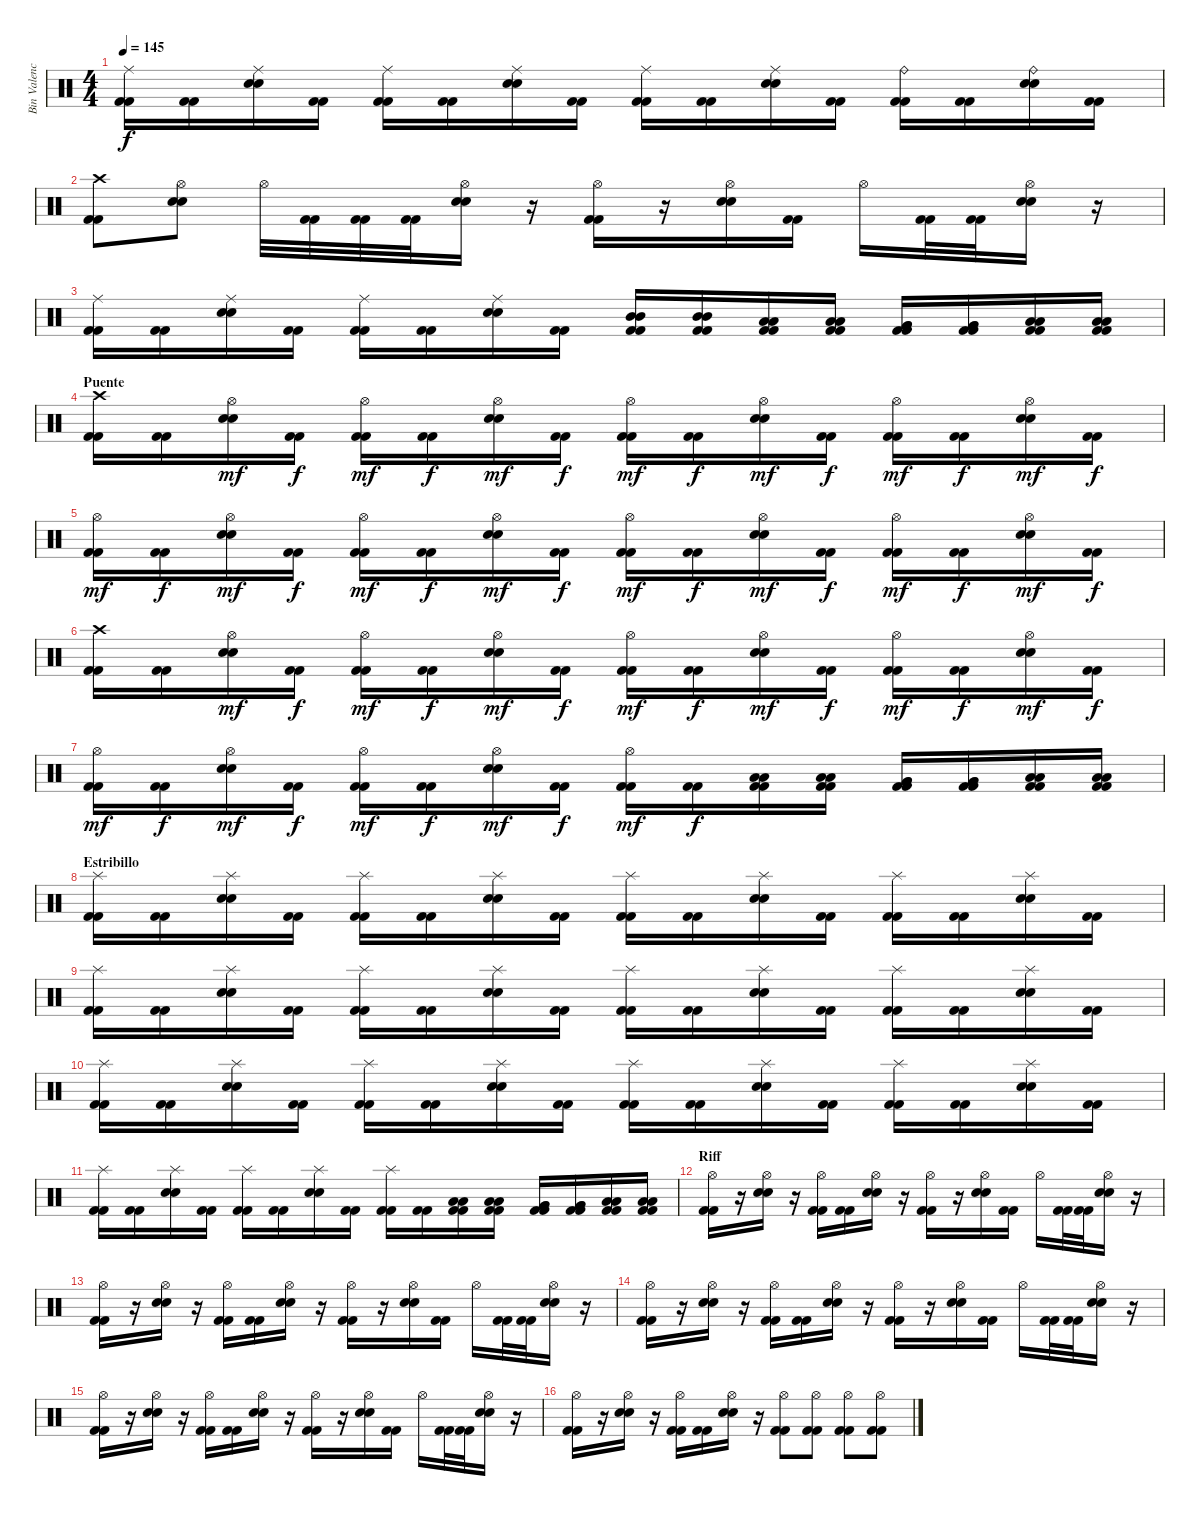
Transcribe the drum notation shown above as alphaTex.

\track ("Bin Valencia (Bateria)" "Bin Valenc") {instrument percussion}
\staff {score}
\articulation defaults
\ts (4 4)
\tempo 145
\clef neutral
\ks c
("Ride (middle)" "Kick (hit) 2" "Kick (hit) 2").16{dy f} ("Kick (hit) 2" "Kick (hit) 2").16 ("Ride (middle)" "Snare (hit) 2" "Snare (hit) 2").16 ("Kick (hit) 2" "Kick (hit) 2").16 ("Ride (middle)" "Kick (hit) 2" "Kick (hit) 2").16 ("Kick (hit) 2" "Kick (hit) 2").16 ("Ride (middle)" "Snare (hit) 2" "Snare (hit) 2").16 ("Kick (hit) 2" "Kick (hit) 2").16 ("Ride (middle)" "Kick (hit) 2" "Kick (hit) 2").16 ("Kick (hit) 2" "Kick (hit) 2").16 ("Ride (middle)" "Snare (hit) 2" "Snare (hit) 2").16 ("Kick (hit) 2" "Kick (hit) 2").16 ("Ride (bell)" "Kick (hit) 2" "Kick (hit) 2").16 ("Kick (hit) 2" "Kick (hit) 2").16 ("Ride (bell)" "Snare (hit) 2" "Snare (hit) 2").16 ("Kick (hit) 2" "Kick (hit) 2").16 |
("Crash high (hit)" "Kick (hit) 2" "Kick (hit) 2").8 ("Hi-Hat (open)" "Snare (hit) 2" "Snare (hit) 2").8 "Hi-Hat (open)".32 ("Kick (hit) 2" "Kick (hit) 2").32 ("Kick (hit) 2" "Kick (hit) 2").32 ("Kick (hit) 2" "Kick (hit) 2").32 ("Hi-Hat (open)" "Snare (hit) 2" "Snare (hit) 2").16 r.16 ("Hi-Hat (open)" "Kick (hit) 2" "Kick (hit) 2").16 r.16 ("Hi-Hat (open)" "Snare (hit) 2" "Snare (hit) 2").16 ("Kick (hit) 2" "Kick (hit) 2").16 "Hi-Hat (open)".16 ("Kick (hit) 2" "Kick (hit) 2").32 ("Kick (hit) 2" "Kick (hit) 2").32 ("Hi-Hat (open)" "Snare (hit) 2" "Snare (hit) 2").16 r.16 |
("Ride (middle)" "Kick (hit) 2" "Kick (hit) 2").16 ("Kick (hit) 2" "Kick (hit) 2").16 ("Ride (middle)" "Snare (hit) 2" "Snare (hit) 2").16 ("Kick (hit) 2" "Kick (hit) 2").16 ("Ride (middle)" "Kick (hit) 2" "Kick (hit) 2").16 ("Kick (hit) 2" "Kick (hit) 2").16 ("Ride (middle)" "Snare (hit) 2" "Snare (hit) 2").16 ("Kick (hit) 2" "Kick (hit) 2").16 ("Kick (hit) 2" "Kick (hit) 2" "Mid Tom (hit)" "Mid Tom (hit)").16 ("Kick (hit) 2" "Kick (hit) 2" "Mid Tom (hit)" "Mid Tom (hit)").16 ("Kick (hit) 2" "Kick (hit) 2" "Low Tom (hit)" "Low Tom (hit)").16 ("Kick (hit) 2" "Kick (hit) 2" "Low Tom (hit)" "Low Tom (hit)").16 ("Kick (hit) 2" "Kick (hit) 2" "Very Low Tom (hit)" "Very Low Tom (hit)").16 ("Kick (hit) 2" "Kick (hit) 2" "Very Low Tom (hit)" "Very Low Tom (hit)").16 ("Kick (hit) 2" "Kick (hit) 2" "Low Floor Tom (hit)" "Low Floor Tom (hit)").16 ("Kick (hit) 2" "Kick (hit) 2" "Low Floor Tom (hit)" "Low Floor Tom (hit)").16 |
\section ("" "Puente")
("Crash high (hit)" "Kick (hit) 2" "Kick (hit) 2").16 ("Kick (hit) 2" "Kick (hit) 2").16 ("Hi-Hat (open)" "Snare (hit) 2" "Snare (hit) 2").16{dy mf} ("Kick (hit) 2" "Kick (hit) 2").16{dy f} ("Hi-Hat (open)" "Kick (hit) 2" "Kick (hit) 2").16{dy mf} ("Kick (hit) 2" "Kick (hit) 2").16{dy f} ("Hi-Hat (open)" "Snare (hit) 2" "Snare (hit) 2").16{dy mf} ("Kick (hit) 2" "Kick (hit) 2").16{dy f} ("Hi-Hat (open)" "Kick (hit) 2" "Kick (hit) 2").16{dy mf} ("Kick (hit) 2" "Kick (hit) 2").16{dy f} ("Hi-Hat (open)" "Snare (hit) 2" "Snare (hit) 2").16{dy mf} ("Kick (hit) 2" "Kick (hit) 2").16{dy f} ("Hi-Hat (open)" "Kick (hit) 2" "Kick (hit) 2").16{dy mf} ("Kick (hit) 2" "Kick (hit) 2").16{dy f} ("Hi-Hat (open)" "Snare (hit) 2" "Snare (hit) 2").16{dy mf} ("Kick (hit) 2" "Kick (hit) 2").16{dy f} |
("Hi-Hat (open)" "Kick (hit) 2" "Kick (hit) 2").16{dy mf} ("Kick (hit) 2" "Kick (hit) 2").16{dy f} ("Hi-Hat (open)" "Snare (hit) 2" "Snare (hit) 2").16{dy mf} ("Kick (hit) 2" "Kick (hit) 2").16{dy f} ("Hi-Hat (open)" "Kick (hit) 2" "Kick (hit) 2").16{dy mf} ("Kick (hit) 2" "Kick (hit) 2").16{dy f} ("Hi-Hat (open)" "Snare (hit) 2" "Snare (hit) 2").16{dy mf} ("Kick (hit) 2" "Kick (hit) 2").16{dy f} ("Hi-Hat (open)" "Kick (hit) 2" "Kick (hit) 2").16{dy mf} ("Kick (hit) 2" "Kick (hit) 2").16{dy f} ("Hi-Hat (open)" "Snare (hit) 2" "Snare (hit) 2").16{dy mf} ("Kick (hit) 2" "Kick (hit) 2").16{dy f} ("Hi-Hat (open)" "Kick (hit) 2" "Kick (hit) 2").16{dy mf} ("Kick (hit) 2" "Kick (hit) 2").16{dy f} ("Hi-Hat (open)" "Snare (hit) 2" "Snare (hit) 2").16{dy mf} ("Kick (hit) 2" "Kick (hit) 2").16{dy f} |
("Crash high (hit)" "Kick (hit) 2" "Kick (hit) 2").16 ("Kick (hit) 2" "Kick (hit) 2").16 ("Hi-Hat (open)" "Snare (hit) 2" "Snare (hit) 2").16{dy mf} ("Kick (hit) 2" "Kick (hit) 2").16{dy f} ("Hi-Hat (open)" "Kick (hit) 2" "Kick (hit) 2").16{dy mf} ("Kick (hit) 2" "Kick (hit) 2").16{dy f} ("Hi-Hat (open)" "Snare (hit) 2" "Snare (hit) 2").16{dy mf} ("Kick (hit) 2" "Kick (hit) 2").16{dy f} ("Hi-Hat (open)" "Kick (hit) 2" "Kick (hit) 2").16{dy mf} ("Kick (hit) 2" "Kick (hit) 2").16{dy f} ("Hi-Hat (open)" "Snare (hit) 2" "Snare (hit) 2").16{dy mf} ("Kick (hit) 2" "Kick (hit) 2").16{dy f} ("Hi-Hat (open)" "Kick (hit) 2" "Kick (hit) 2").16{dy mf} ("Kick (hit) 2" "Kick (hit) 2").16{dy f} ("Hi-Hat (open)" "Snare (hit) 2" "Snare (hit) 2").16{dy mf} ("Kick (hit) 2" "Kick (hit) 2").16{dy f} |
("Hi-Hat (open)" "Kick (hit) 2" "Kick (hit) 2").16{dy mf} ("Kick (hit) 2" "Kick (hit) 2").16{dy f} ("Hi-Hat (open)" "Snare (hit) 2" "Snare (hit) 2").16{dy mf} ("Kick (hit) 2" "Kick (hit) 2").16{dy f} ("Hi-Hat (open)" "Kick (hit) 2" "Kick (hit) 2").16{dy mf} ("Kick (hit) 2" "Kick (hit) 2").16{dy f} ("Hi-Hat (open)" "Snare (hit) 2" "Snare (hit) 2").16{dy mf} ("Kick (hit) 2" "Kick (hit) 2").16{dy f} ("Hi-Hat (open)" "Kick (hit) 2" "Kick (hit) 2").16{dy mf} ("Kick (hit) 2" "Kick (hit) 2").16{dy f} ("Kick (hit) 2" "Kick (hit) 2" "Low Tom (hit)" "Low Tom (hit)").16 ("Kick (hit) 2" "Kick (hit) 2" "Low Tom (hit)" "Low Tom (hit)").16 ("Kick (hit) 2" "Kick (hit) 2" "Very Low Tom (hit)" "Very Low Tom (hit)").16 ("Kick (hit) 2" "Kick (hit) 2" "Very Low Tom (hit)" "Very Low Tom (hit)").16 ("Kick (hit) 2" "Kick (hit) 2" "Low Floor Tom (hit)" "Low Floor Tom (hit)").16 ("Kick (hit) 2" "Kick (hit) 2" "Low Floor Tom (hit)" "Low Floor Tom (hit)").16 |
\section ("" "Estribillo")
("Splash (hit)" "Kick (hit) 2" "Kick (hit) 2").16 ("Kick (hit) 2" "Kick (hit) 2").16 ("Splash (hit)" "Snare (hit) 2" "Snare (hit) 2").16 ("Kick (hit) 2" "Kick (hit) 2").16 ("Splash (hit)" "Kick (hit) 2" "Kick (hit) 2").16 ("Kick (hit) 2" "Kick (hit) 2").16 ("Splash (hit)" "Snare (hit) 2" "Snare (hit) 2").16 ("Kick (hit) 2" "Kick (hit) 2").16 ("Splash (hit)" "Kick (hit) 2" "Kick (hit) 2").16 ("Kick (hit) 2" "Kick (hit) 2").16 ("Splash (hit)" "Snare (hit) 2" "Snare (hit) 2").16 ("Kick (hit) 2" "Kick (hit) 2").16 ("Splash (hit)" "Kick (hit) 2" "Kick (hit) 2").16 ("Kick (hit) 2" "Kick (hit) 2").16 ("Splash (hit)" "Snare (hit) 2" "Snare (hit) 2").16 ("Kick (hit) 2" "Kick (hit) 2").16 |
("Splash (hit)" "Kick (hit) 2" "Kick (hit) 2").16 ("Kick (hit) 2" "Kick (hit) 2").16 ("Splash (hit)" "Snare (hit) 2" "Snare (hit) 2").16 ("Kick (hit) 2" "Kick (hit) 2").16 ("Splash (hit)" "Kick (hit) 2" "Kick (hit) 2").16 ("Kick (hit) 2" "Kick (hit) 2").16 ("Splash (hit)" "Snare (hit) 2" "Snare (hit) 2").16 ("Kick (hit) 2" "Kick (hit) 2").16 ("Splash (hit)" "Kick (hit) 2" "Kick (hit) 2").16 ("Kick (hit) 2" "Kick (hit) 2").16 ("Splash (hit)" "Snare (hit) 2" "Snare (hit) 2").16 ("Kick (hit) 2" "Kick (hit) 2").16 ("Splash (hit)" "Kick (hit) 2" "Kick (hit) 2").16 ("Kick (hit) 2" "Kick (hit) 2").16 ("Splash (hit)" "Snare (hit) 2" "Snare (hit) 2").16 ("Kick (hit) 2" "Kick (hit) 2").16 |
("Splash (hit)" "Kick (hit) 2" "Kick (hit) 2").16 ("Kick (hit) 2" "Kick (hit) 2").16 ("Splash (hit)" "Snare (hit) 2" "Snare (hit) 2").16 ("Kick (hit) 2" "Kick (hit) 2").16 ("Splash (hit)" "Kick (hit) 2" "Kick (hit) 2").16 ("Kick (hit) 2" "Kick (hit) 2").16 ("Splash (hit)" "Snare (hit) 2" "Snare (hit) 2").16 ("Kick (hit) 2" "Kick (hit) 2").16 ("Splash (hit)" "Kick (hit) 2" "Kick (hit) 2").16 ("Kick (hit) 2" "Kick (hit) 2").16 ("Splash (hit)" "Snare (hit) 2" "Snare (hit) 2").16 ("Kick (hit) 2" "Kick (hit) 2").16 ("Splash (hit)" "Kick (hit) 2" "Kick (hit) 2").16 ("Kick (hit) 2" "Kick (hit) 2").16 ("Splash (hit)" "Snare (hit) 2" "Snare (hit) 2").16 ("Kick (hit) 2" "Kick (hit) 2").16 |
("Splash (hit)" "Kick (hit) 2" "Kick (hit) 2").16 ("Kick (hit) 2" "Kick (hit) 2").16 ("Splash (hit)" "Snare (hit) 2" "Snare (hit) 2").16 ("Kick (hit) 2" "Kick (hit) 2").16 ("Splash (hit)" "Kick (hit) 2" "Kick (hit) 2").16 ("Kick (hit) 2" "Kick (hit) 2").16 ("Splash (hit)" "Snare (hit) 2" "Snare (hit) 2").16 ("Kick (hit) 2" "Kick (hit) 2").16 ("Splash (hit)" "Kick (hit) 2" "Kick (hit) 2").16 ("Kick (hit) 2" "Kick (hit) 2").16 ("Kick (hit) 2" "Kick (hit) 2" "Low Tom (hit)" "Low Tom (hit)").16 ("Kick (hit) 2" "Kick (hit) 2" "Low Tom (hit)" "Low Tom (hit)").16 ("Kick (hit) 2" "Kick (hit) 2" "Very Low Tom (hit)" "Very Low Tom (hit)").16 ("Kick (hit) 2" "Kick (hit) 2" "Very Low Tom (hit)" "Very Low Tom (hit)").16 ("Kick (hit) 2" "Kick (hit) 2" "Low Floor Tom (hit)" "Low Floor Tom (hit)").16 ("Kick (hit) 2" "Kick (hit) 2" "Low Floor Tom (hit)" "Low Floor Tom (hit)").16 |
\section ("" "Riff")
("Hi-Hat (open)" "Kick (hit) 2" "Kick (hit) 2").16 r.16 ("Hi-Hat (open)" "Snare (hit) 2" "Snare (hit) 2").16 r.16 ("Hi-Hat (open)" "Kick (hit) 2" "Kick (hit) 2").16 ("Kick (hit) 2" "Kick (hit) 2").16 ("Hi-Hat (open)" "Snare (hit) 2" "Snare (hit) 2").16 r.16 ("Hi-Hat (open)" "Kick (hit) 2" "Kick (hit) 2").16 r.16 ("Hi-Hat (open)" "Snare (hit) 2" "Snare (hit) 2").16 ("Kick (hit) 2" "Kick (hit) 2").16 "Hi-Hat (open)".16 ("Kick (hit) 2" "Kick (hit) 2").32 ("Kick (hit) 2" "Kick (hit) 2").32 ("Hi-Hat (open)" "Snare (hit) 2" "Snare (hit) 2").16 r.16 |
("Hi-Hat (open)" "Kick (hit) 2" "Kick (hit) 2").16 r.16 ("Hi-Hat (open)" "Snare (hit) 2" "Snare (hit) 2").16 r.16 ("Hi-Hat (open)" "Kick (hit) 2" "Kick (hit) 2").16 ("Kick (hit) 2" "Kick (hit) 2").16 ("Hi-Hat (open)" "Snare (hit) 2" "Snare (hit) 2").16 r.16 ("Hi-Hat (open)" "Kick (hit) 2" "Kick (hit) 2").16 r.16 ("Hi-Hat (open)" "Snare (hit) 2" "Snare (hit) 2").16 ("Kick (hit) 2" "Kick (hit) 2").16 "Hi-Hat (open)".16 ("Kick (hit) 2" "Kick (hit) 2").32 ("Kick (hit) 2" "Kick (hit) 2").32 ("Hi-Hat (open)" "Snare (hit) 2" "Snare (hit) 2").16 r.16 |
("Hi-Hat (open)" "Kick (hit) 2" "Kick (hit) 2").16 r.16 ("Hi-Hat (open)" "Snare (hit) 2" "Snare (hit) 2").16 r.16 ("Hi-Hat (open)" "Kick (hit) 2" "Kick (hit) 2").16 ("Kick (hit) 2" "Kick (hit) 2").16 ("Hi-Hat (open)" "Snare (hit) 2" "Snare (hit) 2").16 r.16 ("Hi-Hat (open)" "Kick (hit) 2" "Kick (hit) 2").16 r.16 ("Hi-Hat (open)" "Snare (hit) 2" "Snare (hit) 2").16 ("Kick (hit) 2" "Kick (hit) 2").16 "Hi-Hat (open)".16 ("Kick (hit) 2" "Kick (hit) 2").32 ("Kick (hit) 2" "Kick (hit) 2").32 ("Hi-Hat (open)" "Snare (hit) 2" "Snare (hit) 2").16 r.16 |
("Hi-Hat (open)" "Kick (hit) 2" "Kick (hit) 2").16 r.16 ("Hi-Hat (open)" "Snare (hit) 2" "Snare (hit) 2").16 r.16 ("Hi-Hat (open)" "Kick (hit) 2" "Kick (hit) 2").16 ("Kick (hit) 2" "Kick (hit) 2").16 ("Hi-Hat (open)" "Snare (hit) 2" "Snare (hit) 2").16 r.16 ("Hi-Hat (open)" "Kick (hit) 2" "Kick (hit) 2").16 r.16 ("Hi-Hat (open)" "Snare (hit) 2" "Snare (hit) 2").16 ("Kick (hit) 2" "Kick (hit) 2").16 "Hi-Hat (open)".16 ("Kick (hit) 2" "Kick (hit) 2").32 ("Kick (hit) 2" "Kick (hit) 2").32 ("Hi-Hat (open)" "Snare (hit) 2" "Snare (hit) 2").16 r.16 |
("Hi-Hat (open)" "Kick (hit) 2" "Kick (hit) 2").16 r.16 ("Hi-Hat (open)" "Snare (hit) 2" "Snare (hit) 2").16 r.16 ("Hi-Hat (open)" "Kick (hit) 2" "Kick (hit) 2").16 ("Kick (hit) 2" "Kick (hit) 2").16 ("Hi-Hat (open)" "Snare (hit) 2" "Snare (hit) 2").16 r.16 ("Hi-Hat (open)" "Kick (hit) 2" "Kick (hit) 2").8 ("Hi-Hat (open)" "Kick (hit) 2" "Kick (hit) 2").8 ("Hi-Hat (open)" "Kick (hit) 2" "Kick (hit) 2").8 ("Hi-Hat (open)" "Kick (hit) 2" "Kick (hit) 2").8
